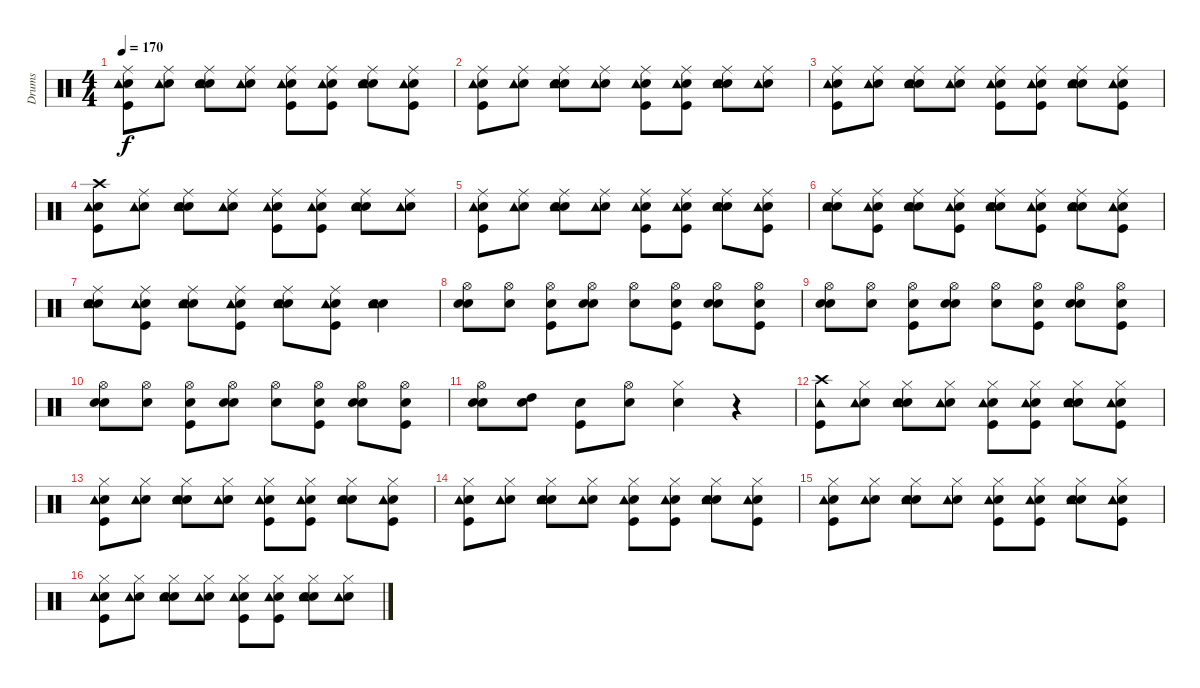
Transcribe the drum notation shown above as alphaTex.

\track ("Drums" "Drums") {instrument percussion}
\staff {score}
\articulation defaults
\ts (4 4)
\tempo 170
\clef neutral
\ks c
("Snare (hit)" "Kick (hit)" "Tambourine (hit)" "Ride (middle)").8{dy f} ("Snare (hit)" "Tambourine (hit)" "Ride (middle)").8 ("Snare (hit)" "Tambourine (hit)" "Electric Snare (hit)" "Ride (middle)").8 ("Snare (hit)" "Tambourine (hit)" "Ride (middle)").8 ("Snare (hit)" "Kick (hit)" "Tambourine (hit)" "Ride (middle)").8 ("Snare (hit)" "Kick (hit)" "Tambourine (hit)" "Ride (middle)").8 ("Snare (hit)" "Tambourine (hit)" "Electric Snare (hit)" "Ride (middle)").8 ("Snare (hit)" "Kick (hit)" "Tambourine (hit)" "Ride (middle)").8 |
("Snare (hit)" "Kick (hit)" "Tambourine (hit)" "Ride (middle)").8 ("Snare (hit)" "Tambourine (hit)" "Ride (middle)").8 ("Snare (hit)" "Tambourine (hit)" "Electric Snare (hit)" "Ride (middle)").8 ("Snare (hit)" "Tambourine (hit)" "Ride (middle)").8 ("Snare (hit)" "Kick (hit)" "Tambourine (hit)" "Ride (middle)").8 ("Snare (hit)" "Kick (hit)" "Tambourine (hit)" "Ride (middle)").8 ("Snare (hit)" "Tambourine (hit)" "Electric Snare (hit)" "Ride (middle)").8 ("Snare (hit)" "Tambourine (hit)" "Ride (middle)").8 |
("Snare (hit)" "Kick (hit)" "Tambourine (hit)" "Ride (middle)").8 ("Snare (hit)" "Tambourine (hit)" "Ride (middle)").8 ("Snare (hit)" "Tambourine (hit)" "Electric Snare (hit)" "Ride (middle)").8 ("Snare (hit)" "Tambourine (hit)" "Ride (middle)").8 ("Snare (hit)" "Kick (hit)" "Tambourine (hit)" "Ride (middle)").8 ("Snare (hit)" "Kick (hit)" "Tambourine (hit)" "Ride (middle)").8 ("Snare (hit)" "Tambourine (hit)" "Electric Snare (hit)" "Ride (middle)").8 ("Snare (hit)" "Kick (hit)" "Tambourine (hit)" "Ride (middle)").8 |
("Snare (hit)" "Kick (hit)" "Tambourine (hit)" "Crash high (hit)").8 ("Snare (hit)" "Tambourine (hit)" "Ride (middle)").8 ("Snare (hit)" "Tambourine (hit)" "Electric Snare (hit)" "Ride (middle)").8 ("Snare (hit)" "Tambourine (hit)" "Ride (middle)").8 ("Snare (hit)" "Kick (hit)" "Tambourine (hit)" "Ride (middle)").8 ("Snare (hit)" "Kick (hit)" "Tambourine (hit)" "Ride (middle)").8 ("Snare (hit)" "Tambourine (hit)" "Electric Snare (hit)" "Ride (middle)").8 ("Snare (hit)" "Tambourine (hit)" "Ride (middle)").8 |
("Snare (hit)" "Tambourine (hit)" "Kick (hit)" "Ride (middle)").8 ("Snare (hit)" "Tambourine (hit)" "Ride (middle)").8 ("Snare (hit)" "Tambourine (hit)" "Electric Snare (hit)" "Ride (middle)").8 ("Snare (hit)" "Tambourine (hit)" "Ride (middle)").8 ("Snare (hit)" "Tambourine (hit)" "Kick (hit)" "Ride (middle)").8 ("Snare (hit)" "Tambourine (hit)" "Kick (hit)" "Ride (middle)").8 ("Snare (hit)" "Tambourine (hit)" "Electric Snare (hit)" "Ride (middle)").8 ("Snare (hit)" "Tambourine (hit)" "Kick (hit)" "Ride (middle)").8 |
("Snare (hit)" "Tambourine (hit)" "Electric Snare (hit)" "Ride (middle)").8 ("Snare (hit)" "Tambourine (hit)" "Kick (hit)" "Ride (middle)").8 ("Snare (hit)" "Tambourine (hit)" "Electric Snare (hit)" "Ride (middle)").8 ("Snare (hit)" "Tambourine (hit)" "Kick (hit)" "Ride (middle)").8 ("Snare (hit)" "Tambourine (hit)" "Electric Snare (hit)" "Ride (middle)").8 ("Snare (hit)" "Tambourine (hit)" "Kick (hit)" "Ride (middle)").8 ("Snare (hit)" "Tambourine (hit)" "Electric Snare (hit)" "Ride (middle)").8 ("Snare (hit)" "Tambourine (hit)" "Kick (hit)" "Ride (middle)").8 |
("Snare (hit)" "Tambourine (hit)" "Electric Snare (hit)" "Ride (middle)").8 ("Snare (hit)" "Kick (hit)" "Tambourine (hit)" "Ride (middle)").8 ("Snare (hit)" "Tambourine (hit)" "Electric Snare (hit)" "Ride (middle)").8 ("Snare (hit)" "Kick (hit)" "Tambourine (hit)" "Ride (middle)").8 ("Snare (hit)" "Electric Snare (hit)" "Ride (middle)" "Tambourine (hit)").8 ("Snare (hit)" "Ride (middle)" "Kick (hit)" "Tambourine (hit)").8 ("Snare (hit)" "Tambourine (hit)" "Electric Snare (hit)").4 |
("Snare (hit)" "Electric Snare (hit)" "Hi-Hat (open)").8 ("Snare (hit)" "Hi-Hat (open)").8 ("Snare (hit)" "Kick (hit)" "Hi-Hat (open)").8 ("Snare (hit)" "Electric Snare (hit)" "Hi-Hat (open)").8 ("Snare (hit)" "Hi-Hat (open)").8 ("Snare (hit)" "Kick (hit)" "Hi-Hat (open)").8 ("Snare (hit)" "Electric Snare (hit)" "Hi-Hat (open)").8 ("Snare (hit)" "Kick (hit)" "Hi-Hat (open)").8 |
("Snare (hit)" "Electric Snare (hit)" "Hi-Hat (open)").8 ("Snare (hit)" "Hi-Hat (open)").8 ("Snare (hit)" "Kick (hit)" "Hi-Hat (open)").8 ("Snare (hit)" "Electric Snare (hit)" "Hi-Hat (open)").8 ("Snare (hit)" "Hi-Hat (open)").8 ("Snare (hit)" "Kick (hit)" "Hi-Hat (open)").8 ("Snare (hit)" "Electric Snare (hit)" "Hi-Hat (open)").8 ("Snare (hit)" "Kick (hit)" "Hi-Hat (open)").8 |
("Snare (hit)" "Electric Snare (hit)" "Hi-Hat (open)").8 ("Snare (hit)" "Hi-Hat (open)").8 ("Snare (hit)" "Kick (hit)" "Hi-Hat (open)").8 ("Snare (hit)" "Electric Snare (hit)" "Hi-Hat (open)").8 ("Snare (hit)" "Hi-Hat (open)").8 ("Snare (hit)" "Kick (hit)" "Hi-Hat (open)").8 ("Snare (hit)" "Electric Snare (hit)" "Hi-Hat (open)").8 ("Snare (hit)" "Kick (hit)" "Hi-Hat (open)").8 |
("Snare (hit)" "Electric Snare (hit)" "Hi-Hat (open)").8 ("Snare (hit)" "High Tom (hit)").8 ("Snare (hit)" "Kick (hit)").8 ("Electric Snare (hit)" "Hi-Hat (open)").8 ("Snare (hit)" "Hi-Hat (closed)").4 r.4 |
("Kick (hit)" "Tambourine (hit)" "Crash high (hit)").8 ("Snare (hit)" "Tambourine (hit)" "Hi-Hat (closed)").8 ("Snare (hit)" "Tambourine (hit)" "Electric Snare (hit)" "Hi-Hat (closed)").8 ("Snare (hit)" "Tambourine (hit)" "Hi-Hat (closed)").8 ("Snare (hit)" "Kick (hit)" "Tambourine (hit)" "Hi-Hat (closed)").8 ("Snare (hit)" "Kick (hit)" "Tambourine (hit)" "Hi-Hat (closed)").8 ("Snare (hit)" "Tambourine (hit)" "Electric Snare (hit)" "Hi-Hat (closed)").8 ("Snare (hit)" "Kick (hit)" "Tambourine (hit)" "Hi-Hat (closed)").8 |
("Snare (hit)" "Kick (hit)" "Tambourine (hit)" "Hi-Hat (closed)").8 ("Snare (hit)" "Tambourine (hit)" "Hi-Hat (closed)").8 ("Snare (hit)" "Tambourine (hit)" "Electric Snare (hit)" "Hi-Hat (closed)").8 ("Snare (hit)" "Tambourine (hit)" "Hi-Hat (closed)").8 ("Snare (hit)" "Kick (hit)" "Tambourine (hit)" "Hi-Hat (closed)").8 ("Snare (hit)" "Kick (hit)" "Tambourine (hit)" "Hi-Hat (closed)").8 ("Snare (hit)" "Tambourine (hit)" "Electric Snare (hit)" "Hi-Hat (closed)").8 ("Snare (hit)" "Kick (hit)" "Tambourine (hit)" "Hi-Hat (closed)").8 |
("Snare (hit)" "Kick (hit)" "Tambourine (hit)" "Hi-Hat (closed)").8 ("Snare (hit)" "Tambourine (hit)" "Hi-Hat (closed)").8 ("Snare (hit)" "Tambourine (hit)" "Electric Snare (hit)" "Hi-Hat (closed)").8 ("Snare (hit)" "Tambourine (hit)" "Hi-Hat (closed)").8 ("Snare (hit)" "Kick (hit)" "Tambourine (hit)" "Hi-Hat (closed)").8 ("Snare (hit)" "Kick (hit)" "Tambourine (hit)" "Hi-Hat (closed)").8 ("Snare (hit)" "Tambourine (hit)" "Electric Snare (hit)" "Hi-Hat (closed)").8 ("Snare (hit)" "Kick (hit)" "Tambourine (hit)" "Hi-Hat (closed)").8 |
("Snare (hit)" "Kick (hit)" "Tambourine (hit)" "Hi-Hat (closed)").8 ("Snare (hit)" "Tambourine (hit)" "Hi-Hat (closed)").8 ("Snare (hit)" "Tambourine (hit)" "Electric Snare (hit)" "Hi-Hat (closed)").8 ("Snare (hit)" "Tambourine (hit)" "Hi-Hat (closed)").8 ("Snare (hit)" "Kick (hit)" "Tambourine (hit)" "Hi-Hat (closed)").8 ("Snare (hit)" "Kick (hit)" "Tambourine (hit)" "Hi-Hat (closed)").8 ("Snare (hit)" "Tambourine (hit)" "Electric Snare (hit)" "Hi-Hat (closed)").8 ("Snare (hit)" "Kick (hit)" "Tambourine (hit)" "Hi-Hat (closed)").8 |
("Snare (hit)" "Kick (hit)" "Tambourine (hit)" "Hi-Hat (closed)").8 ("Snare (hit)" "Tambourine (hit)" "Hi-Hat (closed)").8 ("Snare (hit)" "Tambourine (hit)" "Electric Snare (hit)" "Hi-Hat (closed)").8 ("Snare (hit)" "Tambourine (hit)" "Hi-Hat (closed)").8 ("Snare (hit)" "Kick (hit)" "Tambourine (hit)" "Hi-Hat (closed)").8 ("Snare (hit)" "Kick (hit)" "Tambourine (hit)" "Hi-Hat (closed)").8 ("Snare (hit)" "Tambourine (hit)" "Electric Snare (hit)" "Hi-Hat (closed)").8 ("Snare (hit)" "Tambourine (hit)" "Hi-Hat (closed)").8
